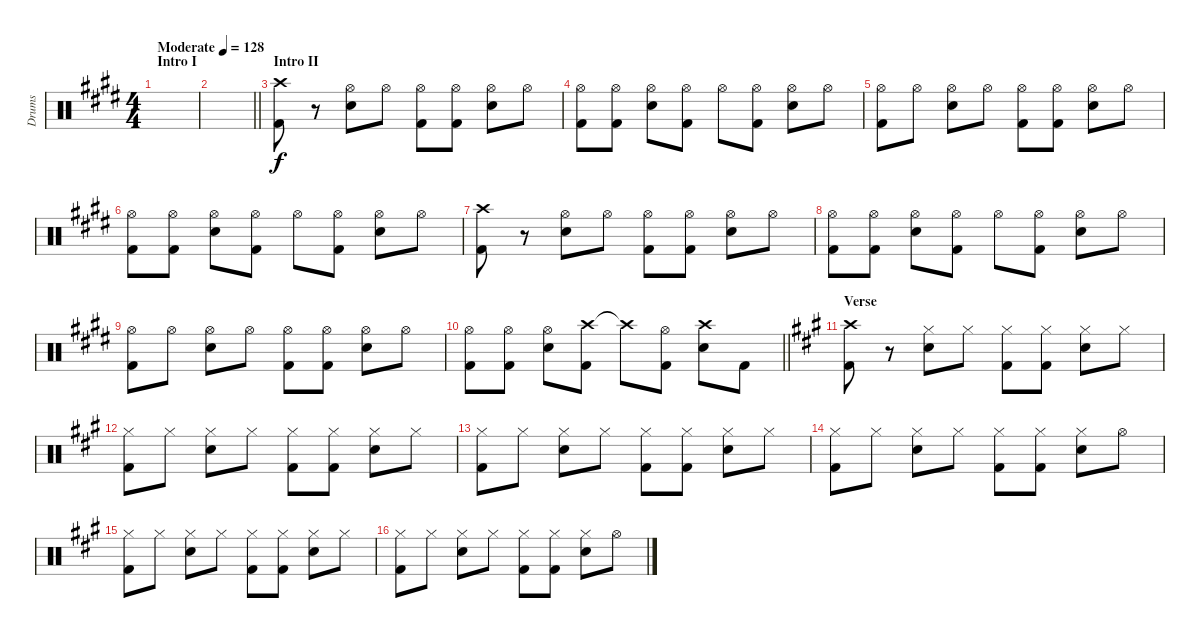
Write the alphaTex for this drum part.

\track ("Drums" "Drums") {instrument percussion}
\staff {score}
\articulation defaults
\ts (4 4)
\section ("" "Intro I")
\tempo (128 "Moderate")
\clef neutral
\ks e
|
\barLineRight lightlight
|
\section ("" "Intro II")
("Crash high (hit)" "Kick (hit) 2").8 r.8 ("Hi-Hat (open)" "Snare (hit) 2").8 "Hi-Hat (open)".8 ("Hi-Hat (open)" "Kick (hit) 2").8 ("Hi-Hat (open)" "Kick (hit) 2").8 ("Hi-Hat (open)" "Snare (hit) 2").8 "Hi-Hat (open)".8 |
("Hi-Hat (open)" "Kick (hit) 2").8 ("Hi-Hat (open)" "Kick (hit) 2").8 ("Hi-Hat (open)" "Snare (hit) 2").8 ("Hi-Hat (open)" "Kick (hit) 2").8 "Hi-Hat (open)".8 ("Hi-Hat (open)" "Kick (hit) 2").8 ("Hi-Hat (open)" "Snare (hit) 2").8 "Hi-Hat (open)".8 |
("Hi-Hat (open)" "Kick (hit) 2").8 "Hi-Hat (open)".8 ("Hi-Hat (open)" "Snare (hit) 2").8 "Hi-Hat (open)".8 ("Hi-Hat (open)" "Kick (hit) 2").8 ("Hi-Hat (open)" "Kick (hit) 2").8 ("Hi-Hat (open)" "Snare (hit) 2").8 "Hi-Hat (open)".8 |
("Hi-Hat (open)" "Kick (hit) 2").8 ("Hi-Hat (open)" "Kick (hit) 2").8 ("Hi-Hat (open)" "Snare (hit) 2").8 ("Hi-Hat (open)" "Kick (hit) 2").8 "Hi-Hat (open)".8 ("Hi-Hat (open)" "Kick (hit) 2").8 ("Hi-Hat (open)" "Snare (hit) 2").8 "Hi-Hat (open)".8 |
("Crash high (hit)" "Kick (hit) 2").8 r.8 ("Hi-Hat (open)" "Snare (hit) 2").8 "Hi-Hat (open)".8 ("Hi-Hat (open)" "Kick (hit) 2").8 ("Hi-Hat (open)" "Kick (hit) 2").8 ("Hi-Hat (open)" "Snare (hit) 2").8 "Hi-Hat (open)".8 |
("Hi-Hat (open)" "Kick (hit) 2").8 ("Hi-Hat (open)" "Kick (hit) 2").8 ("Hi-Hat (open)" "Snare (hit) 2").8 ("Hi-Hat (open)" "Kick (hit) 2").8 "Hi-Hat (open)".8 ("Hi-Hat (open)" "Kick (hit) 2").8 ("Hi-Hat (open)" "Snare (hit) 2").8 "Hi-Hat (open)".8 |
("Hi-Hat (open)" "Kick (hit) 2").8 "Hi-Hat (open)".8 ("Hi-Hat (open)" "Snare (hit) 2").8 "Hi-Hat (open)".8 ("Hi-Hat (open)" "Kick (hit) 2").8 ("Hi-Hat (open)" "Kick (hit) 2").8 ("Hi-Hat (open)" "Snare (hit) 2").8 "Hi-Hat (open)".8 |
\barLineRight lightlight
("Hi-Hat (open)" "Kick (hit) 2").8 ("Hi-Hat (open)" "Kick (hit) 2").8 ("Hi-Hat (open)" "Snare (hit) 2").8 ("Crash high (hit)" "Kick (hit) 2").8 "Crash high (hit)"{t}.8 ("Hi-Hat (open)" "Kick (hit) 2").8 ("Crash high (hit)" "Snare (hit) 2").8 "Kick (hit) 2".8 |
\section ("" "Verse")
\ks a
("Crash high (hit)" "Kick (hit) 2").8 r.8 ("Hi-Hat (closed)" "Snare (hit) 2").8 "Hi-Hat (closed)".8 ("Hi-Hat (closed)" "Kick (hit) 2").8 ("Hi-Hat (closed)" "Kick (hit) 2").8 ("Hi-Hat (closed)" "Snare (hit) 2").8 "Hi-Hat (closed)".8 |
("Hi-Hat (closed)" "Kick (hit) 2").8 "Hi-Hat (closed)".8 ("Hi-Hat (closed)" "Snare (hit) 2").8 "Hi-Hat (closed)".8 ("Hi-Hat (closed)" "Kick (hit) 2").8 ("Hi-Hat (closed)" "Kick (hit) 2").8 ("Hi-Hat (closed)" "Snare (hit) 2").8 "Hi-Hat (closed)".8 |
("Hi-Hat (closed)" "Kick (hit) 2").8 "Hi-Hat (closed)".8 ("Hi-Hat (closed)" "Snare (hit) 2").8 "Hi-Hat (closed)".8 ("Hi-Hat (closed)" "Kick (hit) 2").8 ("Hi-Hat (closed)" "Kick (hit) 2").8 ("Hi-Hat (closed)" "Snare (hit) 2").8 "Hi-Hat (closed)".8 |
("Hi-Hat (closed)" "Kick (hit) 2").8 "Hi-Hat (closed)".8 ("Hi-Hat (closed)" "Snare (hit) 2").8 "Hi-Hat (closed)".8 ("Hi-Hat (closed)" "Kick (hit) 2").8 ("Hi-Hat (closed)" "Kick (hit) 2").8 ("Hi-Hat (closed)" "Snare (hit) 2").8 "Hi-Hat (open)".8 |
("Hi-Hat (closed)" "Kick (hit) 2").8 "Hi-Hat (closed)".8 ("Hi-Hat (closed)" "Snare (hit) 2").8 "Hi-Hat (closed)".8 ("Hi-Hat (closed)" "Kick (hit) 2").8 ("Hi-Hat (closed)" "Kick (hit) 2").8 ("Hi-Hat (closed)" "Snare (hit) 2").8 "Hi-Hat (closed)".8 |
("Hi-Hat (closed)" "Kick (hit) 2").8 "Hi-Hat (closed)".8 ("Hi-Hat (closed)" "Snare (hit) 2").8 "Hi-Hat (closed)".8 ("Hi-Hat (closed)" "Kick (hit) 2").8 ("Hi-Hat (closed)" "Kick (hit) 2").8 ("Hi-Hat (closed)" "Snare (hit) 2").8 "Hi-Hat (open)".8
